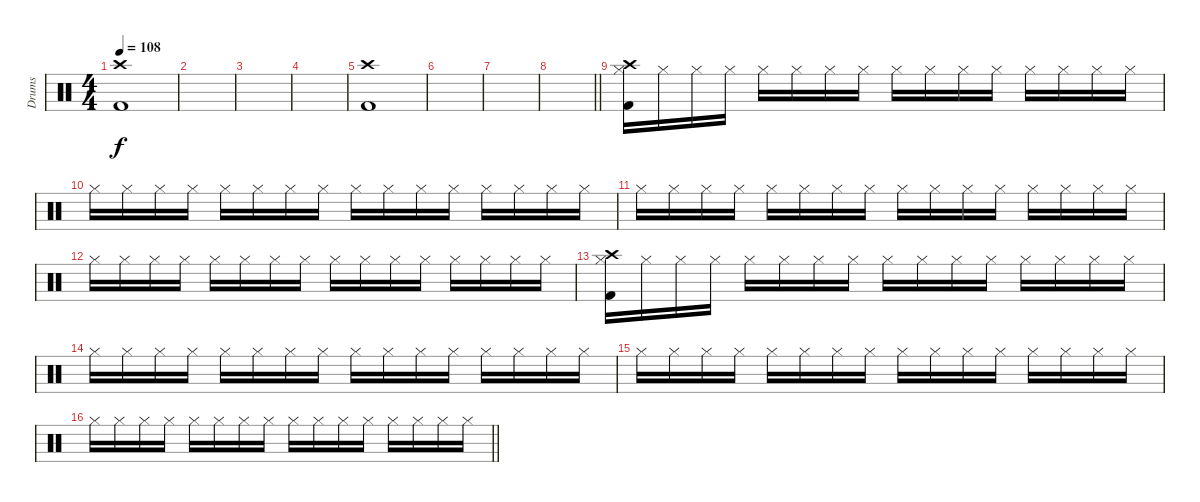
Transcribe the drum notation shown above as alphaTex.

\track ("Drums" "Drums") {instrument percussion}
\staff {score}
\articulation defaults
\ts (4 4)
\section ("" "")
\tempo 108
\clef neutral
\ks c
("Crash high (hit)" "Kick (hit) 2").1{dy f} |
|
|
|
("Crash high (hit)" "Kick (hit) 2").1 |
|
|
\barLineRight lightlight
|
\section ("" "")
("Crash high (hit)" "Hi-Hat (closed)" "Kick (hit) 2").16 "Hi-Hat (closed)".16 "Hi-Hat (closed)".16 "Hi-Hat (closed)".16 "Hi-Hat (closed)".16 "Hi-Hat (closed)".16 "Hi-Hat (closed)".16 "Hi-Hat (closed)".16 "Hi-Hat (closed)".16 "Hi-Hat (closed)".16 "Hi-Hat (closed)".16 "Hi-Hat (closed)".16 "Hi-Hat (closed)".16 "Hi-Hat (closed)".16 "Hi-Hat (closed)".16 "Hi-Hat (closed)".16 |
"Hi-Hat (closed)".16 "Hi-Hat (closed)".16 "Hi-Hat (closed)".16 "Hi-Hat (closed)".16 "Hi-Hat (closed)".16 "Hi-Hat (closed)".16 "Hi-Hat (closed)".16 "Hi-Hat (closed)".16 "Hi-Hat (closed)".16 "Hi-Hat (closed)".16 "Hi-Hat (closed)".16 "Hi-Hat (closed)".16 "Hi-Hat (closed)".16 "Hi-Hat (closed)".16 "Hi-Hat (closed)".16 "Hi-Hat (closed)".16 |
"Hi-Hat (closed)".16 "Hi-Hat (closed)".16 "Hi-Hat (closed)".16 "Hi-Hat (closed)".16 "Hi-Hat (closed)".16 "Hi-Hat (closed)".16 "Hi-Hat (closed)".16 "Hi-Hat (closed)".16 "Hi-Hat (closed)".16 "Hi-Hat (closed)".16 "Hi-Hat (closed)".16 "Hi-Hat (closed)".16 "Hi-Hat (closed)".16 "Hi-Hat (closed)".16 "Hi-Hat (closed)".16 "Hi-Hat (closed)".16 |
"Hi-Hat (closed)".16 "Hi-Hat (closed)".16 "Hi-Hat (closed)".16 "Hi-Hat (closed)".16 "Hi-Hat (closed)".16 "Hi-Hat (closed)".16 "Hi-Hat (closed)".16 "Hi-Hat (closed)".16 "Hi-Hat (closed)".16 "Hi-Hat (closed)".16 "Hi-Hat (closed)".16 "Hi-Hat (closed)".16 "Hi-Hat (closed)".16 "Hi-Hat (closed)".16 "Hi-Hat (closed)".16 "Hi-Hat (closed)".16 |
("Crash high (hit)" "Hi-Hat (closed)" "Kick (hit) 2").16 "Hi-Hat (closed)".16 "Hi-Hat (closed)".16 "Hi-Hat (closed)".16 "Hi-Hat (closed)".16 "Hi-Hat (closed)".16 "Hi-Hat (closed)".16 "Hi-Hat (closed)".16 "Hi-Hat (closed)".16 "Hi-Hat (closed)".16 "Hi-Hat (closed)".16 "Hi-Hat (closed)".16 "Hi-Hat (closed)".16 "Hi-Hat (closed)".16 "Hi-Hat (closed)".16 "Hi-Hat (closed)".16 |
"Hi-Hat (closed)".16 "Hi-Hat (closed)".16 "Hi-Hat (closed)".16 "Hi-Hat (closed)".16 "Hi-Hat (closed)".16 "Hi-Hat (closed)".16 "Hi-Hat (closed)".16 "Hi-Hat (closed)".16 "Hi-Hat (closed)".16 "Hi-Hat (closed)".16 "Hi-Hat (closed)".16 "Hi-Hat (closed)".16 "Hi-Hat (closed)".16 "Hi-Hat (closed)".16 "Hi-Hat (closed)".16 "Hi-Hat (closed)".16 |
"Hi-Hat (closed)".16 "Hi-Hat (closed)".16 "Hi-Hat (closed)".16 "Hi-Hat (closed)".16 "Hi-Hat (closed)".16 "Hi-Hat (closed)".16 "Hi-Hat (closed)".16 "Hi-Hat (closed)".16 "Hi-Hat (closed)".16 "Hi-Hat (closed)".16 "Hi-Hat (closed)".16 "Hi-Hat (closed)".16 "Hi-Hat (closed)".16 "Hi-Hat (closed)".16 "Hi-Hat (closed)".16 "Hi-Hat (closed)".16 |
\barLineRight lightlight "Hi-Hat (closed)".16 "Hi-Hat (closed)".16 "Hi-Hat (closed)".16 "Hi-Hat (closed)".16 "Hi-Hat (closed)".16 "Hi-Hat (closed)".16 "Hi-Hat (closed)".16 "Hi-Hat (closed)".16 "Hi-Hat (closed)".16 "Hi-Hat (closed)".16 "Hi-Hat (closed)".16 "Hi-Hat (closed)".16 "Hi-Hat (closed)".16 "Hi-Hat (closed)".16 "Hi-Hat (closed)".16 "Hi-Hat (closed)".16
